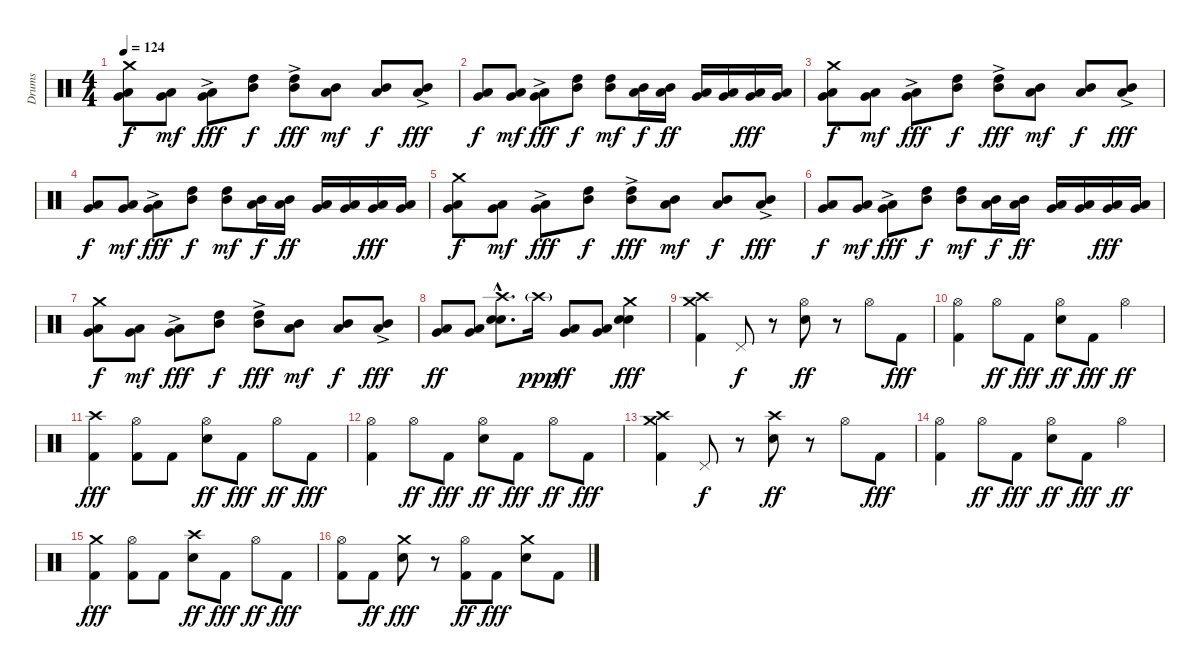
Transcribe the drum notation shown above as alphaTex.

\track ("Drums" "Drums") {instrument percussion}
\staff {score}
\articulation defaults
\ts (4 4)
\tempo 124
\clef neutral
\ks c
("Crash medium (hit)" "Low Tom (hit)" "Very Low Tom (hit)").8{dy f} ("Low Tom (hit)" "Very Low Tom (hit)").8{dy mf} ("Low Tom (hit)" "Very Low Tom (hit)"{ac}).8{dy fff} ("High Tom (hit)" "Mid Tom (hit)").8{dy f} ("High Tom (hit)" "Mid Tom (hit)"{ac}).8{dy fff} ("Mid Tom (hit)" "Low Tom (hit)").8{dy mf} ("Mid Tom (hit)" "Low Tom (hit)").8{dy f} ("Mid Tom (hit)" "Low Tom (hit)"{ac}).8{dy fff} |
("Low Tom (hit)" "Very Low Tom (hit)").8{dy f} ("Low Tom (hit)" "Very Low Tom (hit)").8{dy mf} ("Low Tom (hit)" "Very Low Tom (hit)"{ac}).8{dy fff} ("High Tom (hit)" "Mid Tom (hit)").8{dy f} ("High Tom (hit)" "Mid Tom (hit)").8{dy mf} ("Mid Tom (hit)" "Low Tom (hit)").16{dy f} ("Mid Tom (hit)" "Low Tom (hit)").16{dy ff} ("Low Tom (hit)" "Very Low Tom (hit)").16 ("Low Tom (hit)" "Very Low Tom (hit)").16 ("Very Low Tom (hit)" "Low Floor Tom (hit)").16{dy fff} ("Very Low Tom (hit)" "Low Floor Tom (hit)").16 |
("Crash medium (hit)" "Low Tom (hit)" "Very Low Tom (hit)").8{dy f} ("Low Tom (hit)" "Very Low Tom (hit)").8{dy mf} ("Low Tom (hit)" "Very Low Tom (hit)"{ac}).8{dy fff} ("High Tom (hit)" "Mid Tom (hit)").8{dy f} ("High Tom (hit)" "Mid Tom (hit)"{ac}).8{dy fff} ("Mid Tom (hit)" "Low Tom (hit)").8{dy mf} ("Mid Tom (hit)" "Low Tom (hit)").8{dy f} ("Mid Tom (hit)" "Low Tom (hit)"{ac}).8{dy fff} |
("Low Tom (hit)" "Very Low Tom (hit)").8{dy f} ("Low Tom (hit)" "Very Low Tom (hit)").8{dy mf} ("Low Tom (hit)" "Very Low Tom (hit)"{ac}).8{dy fff} ("High Tom (hit)" "Mid Tom (hit)").8{dy f} ("High Tom (hit)" "Mid Tom (hit)").8{dy mf} ("Mid Tom (hit)" "Low Tom (hit)").16{dy f} ("Mid Tom (hit)" "Low Tom (hit)").16{dy ff} ("Low Tom (hit)" "Very Low Tom (hit)").16 ("Low Tom (hit)" "Very Low Tom (hit)").16 ("Very Low Tom (hit)" "Low Floor Tom (hit)").16{dy fff} ("Very Low Tom (hit)" "Low Floor Tom (hit)").16 |
("Crash medium (hit)" "Low Tom (hit)" "Very Low Tom (hit)").8{dy f} ("Low Tom (hit)" "Very Low Tom (hit)").8{dy mf} ("Low Tom (hit)" "Very Low Tom (hit)"{ac}).8{dy fff} ("High Tom (hit)" "Mid Tom (hit)").8{dy f} ("High Tom (hit)" "Mid Tom (hit)"{ac}).8{dy fff} ("Mid Tom (hit)" "Low Tom (hit)").8{dy mf} ("Mid Tom (hit)" "Low Tom (hit)").8{dy f} ("Mid Tom (hit)" "Low Tom (hit)"{ac}).8{dy fff} |
("Low Tom (hit)" "Very Low Tom (hit)").8{dy f} ("Low Tom (hit)" "Very Low Tom (hit)").8{dy mf} ("Low Tom (hit)" "Very Low Tom (hit)"{ac}).8{dy fff} ("High Tom (hit)" "Mid Tom (hit)").8{dy f} ("High Tom (hit)" "Mid Tom (hit)").8{dy mf} ("Mid Tom (hit)" "Low Tom (hit)").16{dy f} ("Mid Tom (hit)" "Low Tom (hit)").16{dy ff} ("Low Tom (hit)" "Very Low Tom (hit)").16 ("Low Tom (hit)" "Very Low Tom (hit)").16 ("Very Low Tom (hit)" "Low Floor Tom (hit)").16{dy fff} ("Very Low Tom (hit)" "Low Floor Tom (hit)").16 |
("Crash medium (hit)" "Low Tom (hit)" "Very Low Tom (hit)").8{dy f} ("Low Tom (hit)" "Very Low Tom (hit)").8{dy mf} ("Low Tom (hit)" "Very Low Tom (hit)"{ac}).8{dy fff} ("High Tom (hit)" "Mid Tom (hit)").8{dy f} ("High Tom (hit)" "Mid Tom (hit)"{ac}).8{dy fff} ("Mid Tom (hit)" "Low Tom (hit)").8{dy mf} ("Mid Tom (hit)" "Low Tom (hit)").8{dy f} ("Mid Tom (hit)" "Low Tom (hit)"{ac}).8{dy fff} |
("Very Low Tom (hit)" "Low Tom (hit)").8{dy ff} ("Very Low Tom (hit)" "Low Tom (hit)").8 ("Crash high (hit)"{hac} "Snare (hit) 2"{hac} "Electric Snare (hit)"{hac}).8{d} "Crash high (hit)"{g}.16{dy ppp} ("Very Low Tom (hit)" "Low Tom (hit)").8{dy ff} ("Very Low Tom (hit)" "Low Tom (hit)").8 ("Crash medium (hit)" "Snare (hit) 2" "Electric Snare (hit)").4{dy fff} |
("Crash medium (hit)" "Crash high (hit)" "Kick (hit) 2").4 "Pedal Hi-Hat (hit)".8{dy f} r.8 ("Hi-Hat (open)" "Snare (hit) 2").8{dy ff} r.8 "Hi-Hat (open)".8 "Kick (hit) 2".8{dy fff} |
("Hi-Hat (open)" "Kick (hit) 2").4 "Hi-Hat (open)".8{dy ff} "Kick (hit) 2".8{dy fff} ("Hi-Hat (open)" "Snare (hit) 2").8{dy ff} "Kick (hit) 2".8{dy fff} "Hi-Hat (open)".4{dy ff} |
("Crash high (hit)" "Kick (hit) 2").4{dy fff} ("Hi-Hat (open)" "Kick (hit) 2").8 "Kick (hit) 2".8 ("Hi-Hat (open)" "Snare (hit) 2").8{dy ff} "Kick (hit) 2".8{dy fff} "Hi-Hat (open)".8{dy ff} "Kick (hit) 2".8{dy fff} |
("Hi-Hat (open)" "Kick (hit) 2").4 "Hi-Hat (open)".8{dy ff} "Kick (hit) 2".8{dy fff} ("Hi-Hat (open)" "Snare (hit) 2").8{dy ff} "Kick (hit) 2".8{dy fff} "Hi-Hat (open)".8{dy ff} "Kick (hit) 2".8{dy fff} |
("Crash medium (hit)" "Crash high (hit)" "Kick (hit) 2").4 "Pedal Hi-Hat (hit)".8{dy f} r.8 ("Crash high (hit)" "Snare (hit) 2").8{dy ff} r.8 "Hi-Hat (open)".8 "Kick (hit) 2".8{dy fff} |
("Hi-Hat (open)" "Kick (hit) 2").4 "Hi-Hat (open)".8{dy ff} "Kick (hit) 2".8{dy fff} ("Hi-Hat (open)" "Snare (hit) 2").8{dy ff} "Kick (hit) 2".8{dy fff} "Hi-Hat (open)".4{dy ff} |
("Crash medium (hit)" "Kick (hit) 2").4{dy fff} ("Hi-Hat (open)" "Kick (hit) 2").8 "Kick (hit) 2".8 ("Crash high (hit)" "Snare (hit) 2").8{dy ff} "Kick (hit) 2".8{dy fff} "Hi-Hat (open)".8{dy ff} "Kick (hit) 2".8{dy fff} |
("Hi-Hat (open)" "Kick (hit) 2").8 "Kick (hit) 2".8{dy ff} ("Crash medium (hit)" "Snare (hit) 2").8{dy fff} r.8 ("Hi-Hat (open)" "Kick (hit) 2").8{dy ff} "Kick (hit) 2".8{dy fff} ("Crash medium (hit)" "Snare (hit) 2").8 "Kick (hit) 2".8
